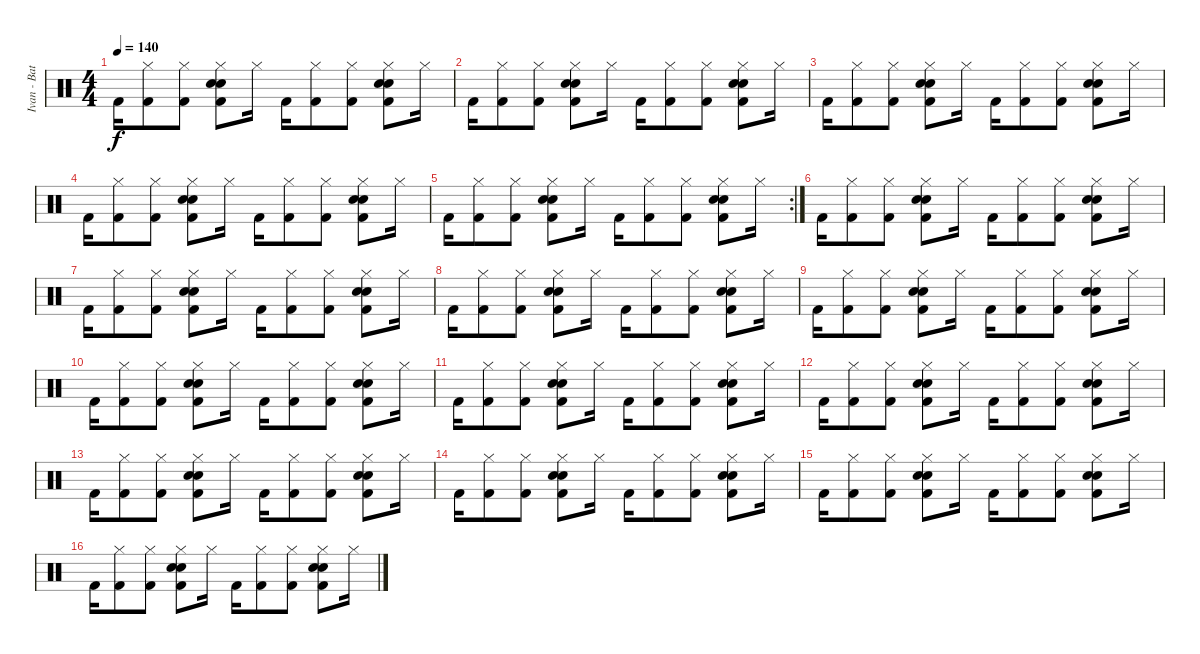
\track ("Ivan - Batterie" "Ivan - Bat") {instrument percussion}
\staff {score}
\articulation defaults
\ts (4 4)
\tempo 140
\clef neutral
\ks c "Kick (hit) 2".16{dy f}
("Hi-Hat (closed)" "Kick (hit) 2").8 ("Hi-Hat (closed)" "Kick (hit) 2").8 ("Hi-Hat (closed)" "Electric Snare (hit)" "Snare (hit) 2" "Kick (hit) 2").8 "Hi-Hat (closed)".16 "Kick (hit) 2".16 ("Hi-Hat (closed)" "Kick (hit) 2").8 ("Hi-Hat (closed)" "Kick (hit) 2").8 ("Hi-Hat (closed)" "Electric Snare (hit)" "Snare (hit) 2" "Kick (hit) 2").8 "Hi-Hat (closed)".16 |
"Kick (hit) 2".16 ("Hi-Hat (closed)" "Kick (hit) 2").8 ("Hi-Hat (closed)" "Kick (hit) 2").8 ("Hi-Hat (closed)" "Electric Snare (hit)" "Snare (hit) 2" "Kick (hit) 2").8 "Hi-Hat (closed)".16 "Kick (hit) 2".16 ("Hi-Hat (closed)" "Kick (hit) 2").8 ("Hi-Hat (closed)" "Kick (hit) 2").8 ("Hi-Hat (closed)" "Electric Snare (hit)" "Snare (hit) 2" "Kick (hit) 2").8 "Hi-Hat (closed)".16 |
"Kick (hit) 2".16 ("Hi-Hat (closed)" "Kick (hit) 2").8 ("Hi-Hat (closed)" "Kick (hit) 2").8 ("Hi-Hat (closed)" "Electric Snare (hit)" "Snare (hit) 2" "Kick (hit) 2").8 "Hi-Hat (closed)".16 "Kick (hit) 2".16 ("Hi-Hat (closed)" "Kick (hit) 2").8 ("Hi-Hat (closed)" "Kick (hit) 2").8 ("Hi-Hat (closed)" "Electric Snare (hit)" "Snare (hit) 2" "Kick (hit) 2").8 "Hi-Hat (closed)".16 |
"Kick (hit) 2".16 ("Hi-Hat (closed)" "Kick (hit) 2").8 ("Hi-Hat (closed)" "Kick (hit) 2").8 ("Hi-Hat (closed)" "Electric Snare (hit)" "Snare (hit) 2" "Kick (hit) 2").8 "Hi-Hat (closed)".16 "Kick (hit) 2".16 ("Hi-Hat (closed)" "Kick (hit) 2").8 ("Hi-Hat (closed)" "Kick (hit) 2").8 ("Hi-Hat (closed)" "Electric Snare (hit)" "Snare (hit) 2" "Kick (hit) 2").8 "Hi-Hat (closed)".16 |
\rc 2 "Kick (hit) 2".16
("Hi-Hat (closed)" "Kick (hit) 2").8 ("Hi-Hat (closed)" "Kick (hit) 2").8 ("Hi-Hat (closed)" "Electric Snare (hit)" "Snare (hit) 2" "Kick (hit) 2").8 "Hi-Hat (closed)".16 "Kick (hit) 2".16 ("Hi-Hat (closed)" "Kick (hit) 2").8 ("Hi-Hat (closed)" "Kick (hit) 2").8 ("Hi-Hat (closed)" "Electric Snare (hit)" "Snare (hit) 2" "Kick (hit) 2").8 "Hi-Hat (closed)".16 |
"Kick (hit) 2".16 ("Hi-Hat (closed)" "Kick (hit) 2").8 ("Hi-Hat (closed)" "Kick (hit) 2").8 ("Hi-Hat (closed)" "Electric Snare (hit)" "Snare (hit) 2" "Kick (hit) 2").8 "Hi-Hat (closed)".16 "Kick (hit) 2".16 ("Hi-Hat (closed)" "Kick (hit) 2").8 ("Hi-Hat (closed)" "Kick (hit) 2").8 ("Hi-Hat (closed)" "Electric Snare (hit)" "Snare (hit) 2" "Kick (hit) 2").8 "Hi-Hat (closed)".16 |
"Kick (hit) 2".16 ("Hi-Hat (closed)" "Kick (hit) 2").8 ("Hi-Hat (closed)" "Kick (hit) 2").8 ("Hi-Hat (closed)" "Electric Snare (hit)" "Snare (hit) 2" "Kick (hit) 2").8 "Hi-Hat (closed)".16 "Kick (hit) 2".16 ("Hi-Hat (closed)" "Kick (hit) 2").8 ("Hi-Hat (closed)" "Kick (hit) 2").8 ("Hi-Hat (closed)" "Electric Snare (hit)" "Snare (hit) 2" "Kick (hit) 2").8 "Hi-Hat (closed)".16 |
"Kick (hit) 2".16 ("Hi-Hat (closed)" "Kick (hit) 2").8 ("Hi-Hat (closed)" "Kick (hit) 2").8 ("Hi-Hat (closed)" "Electric Snare (hit)" "Snare (hit) 2" "Kick (hit) 2").8 "Hi-Hat (closed)".16 "Kick (hit) 2".16 ("Hi-Hat (closed)" "Kick (hit) 2").8 ("Hi-Hat (closed)" "Kick (hit) 2").8 ("Hi-Hat (closed)" "Electric Snare (hit)" "Snare (hit) 2" "Kick (hit) 2").8 "Hi-Hat (closed)".16 |
"Kick (hit) 2".16 ("Hi-Hat (closed)" "Kick (hit) 2").8 ("Hi-Hat (closed)" "Kick (hit) 2").8 ("Hi-Hat (closed)" "Electric Snare (hit)" "Snare (hit) 2" "Kick (hit) 2").8 "Hi-Hat (closed)".16 "Kick (hit) 2".16 ("Hi-Hat (closed)" "Kick (hit) 2").8 ("Hi-Hat (closed)" "Kick (hit) 2").8 ("Hi-Hat (closed)" "Electric Snare (hit)" "Snare (hit) 2" "Kick (hit) 2").8 "Hi-Hat (closed)".16 |
"Kick (hit) 2".16 ("Hi-Hat (closed)" "Kick (hit) 2").8 ("Hi-Hat (closed)" "Kick (hit) 2").8 ("Hi-Hat (closed)" "Electric Snare (hit)" "Snare (hit) 2" "Kick (hit) 2").8 "Hi-Hat (closed)".16 "Kick (hit) 2".16 ("Hi-Hat (closed)" "Kick (hit) 2").8 ("Hi-Hat (closed)" "Kick (hit) 2").8 ("Hi-Hat (closed)" "Electric Snare (hit)" "Snare (hit) 2" "Kick (hit) 2").8 "Hi-Hat (closed)".16 |
"Kick (hit) 2".16 ("Hi-Hat (closed)" "Kick (hit) 2").8 ("Hi-Hat (closed)" "Kick (hit) 2").8 ("Hi-Hat (closed)" "Electric Snare (hit)" "Snare (hit) 2" "Kick (hit) 2").8 "Hi-Hat (closed)".16 "Kick (hit) 2".16 ("Hi-Hat (closed)" "Kick (hit) 2").8 ("Hi-Hat (closed)" "Kick (hit) 2").8 ("Hi-Hat (closed)" "Electric Snare (hit)" "Snare (hit) 2" "Kick (hit) 2").8 "Hi-Hat (closed)".16 |
"Kick (hit) 2".16 ("Hi-Hat (closed)" "Kick (hit) 2").8 ("Hi-Hat (closed)" "Kick (hit) 2").8 ("Hi-Hat (closed)" "Electric Snare (hit)" "Snare (hit) 2" "Kick (hit) 2").8 "Hi-Hat (closed)".16 "Kick (hit) 2".16 ("Hi-Hat (closed)" "Kick (hit) 2").8 ("Hi-Hat (closed)" "Kick (hit) 2").8 ("Hi-Hat (closed)" "Electric Snare (hit)" "Snare (hit) 2" "Kick (hit) 2").8 "Hi-Hat (closed)".16 |
"Kick (hit) 2".16 ("Hi-Hat (closed)" "Kick (hit) 2").8 ("Hi-Hat (closed)" "Kick (hit) 2").8 ("Hi-Hat (closed)" "Electric Snare (hit)" "Snare (hit) 2" "Kick (hit) 2").8 "Hi-Hat (closed)".16 "Kick (hit) 2".16 ("Hi-Hat (closed)" "Kick (hit) 2").8 ("Hi-Hat (closed)" "Kick (hit) 2").8 ("Hi-Hat (closed)" "Electric Snare (hit)" "Snare (hit) 2" "Kick (hit) 2").8 "Hi-Hat (closed)".16 |
"Kick (hit) 2".16 ("Hi-Hat (closed)" "Kick (hit) 2").8 ("Hi-Hat (closed)" "Kick (hit) 2").8 ("Hi-Hat (closed)" "Electric Snare (hit)" "Snare (hit) 2" "Kick (hit) 2").8 "Hi-Hat (closed)".16 "Kick (hit) 2".16 ("Hi-Hat (closed)" "Kick (hit) 2").8 ("Hi-Hat (closed)" "Kick (hit) 2").8 ("Hi-Hat (closed)" "Electric Snare (hit)" "Snare (hit) 2" "Kick (hit) 2").8 "Hi-Hat (closed)".16 |
"Kick (hit) 2".16 ("Hi-Hat (closed)" "Kick (hit) 2").8 ("Hi-Hat (closed)" "Kick (hit) 2").8 ("Hi-Hat (closed)" "Electric Snare (hit)" "Snare (hit) 2" "Kick (hit) 2").8 "Hi-Hat (closed)".16 "Kick (hit) 2".16 ("Hi-Hat (closed)" "Kick (hit) 2").8 ("Hi-Hat (closed)" "Kick (hit) 2").8 ("Hi-Hat (closed)" "Electric Snare (hit)" "Snare (hit) 2" "Kick (hit) 2").8 "Hi-Hat (closed)".16 |
"Kick (hit) 2".16{volume 12} ("Hi-Hat (closed)" "Kick (hit) 2").8 ("Hi-Hat (closed)" "Kick (hit) 2").8 ("Hi-Hat (closed)" "Electric Snare (hit)" "Snare (hit) 2" "Kick (hit) 2").8 "Hi-Hat (closed)".16 "Kick (hit) 2".16 ("Hi-Hat (closed)" "Kick (hit) 2").8 ("Hi-Hat (closed)" "Kick (hit) 2").8 ("Hi-Hat (closed)" "Electric Snare (hit)" "Snare (hit) 2" "Kick (hit) 2").8 "Hi-Hat (closed)".16
